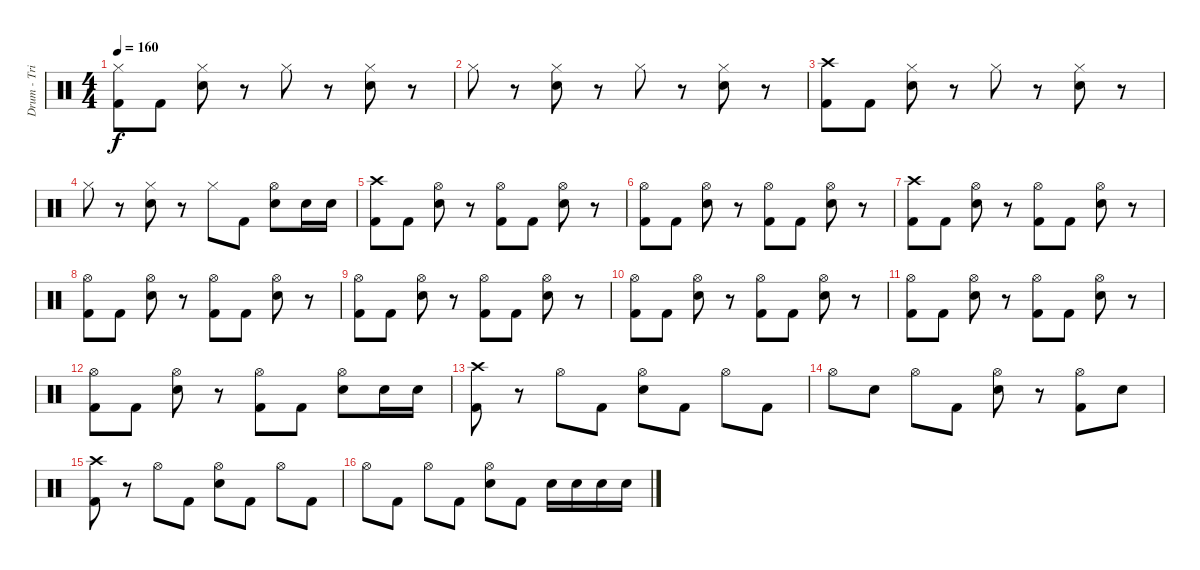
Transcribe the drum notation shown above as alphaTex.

\track ("Drum - Trian" "Drum - Tri") {instrument percussion}
\staff {score}
\articulation defaults
\ts (4 4)
\tempo 160
\clef neutral
\ks c
("Hi-Hat (closed)" "Kick (hit) 2").8{dy f} "Kick (hit) 2".8 ("Hi-Hat (closed)" "Electric Snare (hit)").8 r.8 "Hi-Hat (closed)".8 r.8 ("Hi-Hat (closed)" "Electric Snare (hit)").8 r.8 |
"Hi-Hat (closed)".8 r.8 ("Hi-Hat (closed)" "Electric Snare (hit)").8 r.8 "Hi-Hat (closed)".8 r.8 ("Hi-Hat (closed)" "Electric Snare (hit)").8 r.8 |
("Crash high (hit)" "Kick (hit) 2").8 "Kick (hit) 2".8 ("Hi-Hat (closed)" "Electric Snare (hit)").8 r.8 "Hi-Hat (closed)".8 r.8 ("Hi-Hat (closed)" "Electric Snare (hit)").8 r.8 |
"Hi-Hat (closed)".8 r.8 ("Hi-Hat (closed)" "Electric Snare (hit)").8 r.8 "Hi-Hat (closed)".8 "Kick (hit) 2".8 ("Hi-Hat (open)" "Electric Snare (hit)").8 "Electric Snare (hit)".16 "Electric Snare (hit)".16 |
("Crash high (hit)" "Kick (hit) 2").8 "Kick (hit) 2".8 ("Hi-Hat (open)" "Electric Snare (hit)").8 r.8 ("Hi-Hat (open)" "Kick (hit) 2").8 "Kick (hit) 2".8 ("Hi-Hat (open)" "Electric Snare (hit)").8 r.8 |
("Hi-Hat (open)" "Kick (hit) 2").8 "Kick (hit) 2".8 ("Hi-Hat (open)" "Electric Snare (hit)").8 r.8 ("Hi-Hat (open)" "Kick (hit) 2").8 "Kick (hit) 2".8 ("Hi-Hat (open)" "Electric Snare (hit)").8 r.8 |
("Crash high (hit)" "Kick (hit) 2").8 "Kick (hit) 2".8 ("Hi-Hat (open)" "Electric Snare (hit)").8 r.8 ("Hi-Hat (open)" "Kick (hit) 2").8 "Kick (hit) 2".8 ("Hi-Hat (open)" "Electric Snare (hit)").8 r.8 |
("Hi-Hat (open)" "Kick (hit) 2").8 "Kick (hit) 2".8 ("Hi-Hat (open)" "Electric Snare (hit)").8 r.8 ("Hi-Hat (open)" "Kick (hit) 2").8 "Kick (hit) 2".8 ("Hi-Hat (open)" "Electric Snare (hit)").8 r.8 |
("Hi-Hat (open)" "Kick (hit) 2").8 "Kick (hit) 2".8 ("Hi-Hat (open)" "Electric Snare (hit)").8 r.8 ("Hi-Hat (open)" "Kick (hit) 2").8 "Kick (hit) 2".8 ("Hi-Hat (open)" "Electric Snare (hit)").8 r.8 |
("Hi-Hat (open)" "Kick (hit) 2").8 "Kick (hit) 2".8 ("Hi-Hat (open)" "Electric Snare (hit)").8 r.8 ("Hi-Hat (open)" "Kick (hit) 2").8 "Kick (hit) 2".8 ("Hi-Hat (open)" "Electric Snare (hit)").8 r.8 |
("Hi-Hat (open)" "Kick (hit) 2").8 "Kick (hit) 2".8 ("Hi-Hat (open)" "Electric Snare (hit)").8 r.8 ("Hi-Hat (open)" "Kick (hit) 2").8 "Kick (hit) 2".8 ("Hi-Hat (open)" "Electric Snare (hit)").8 r.8 |
("Hi-Hat (open)" "Kick (hit) 2").8 "Kick (hit) 2".8 ("Hi-Hat (open)" "Electric Snare (hit)").8 r.8 ("Hi-Hat (open)" "Kick (hit) 2").8 "Kick (hit) 2".8 ("Hi-Hat (open)" "Electric Snare (hit)").8 "Electric Snare (hit)".16 "Electric Snare (hit)".16 |
("Crash high (hit)" "Kick (hit) 2").8 r.8 "Hi-Hat (open)".8 "Kick (hit) 2".8 ("Hi-Hat (open)" "Electric Snare (hit)").8 "Kick (hit) 2".8 "Hi-Hat (open)".8 "Kick (hit) 2".8 |
"Hi-Hat (open)".8 "Electric Snare (hit)".8 "Hi-Hat (open)".8 "Kick (hit) 2".8 ("Hi-Hat (open)" "Electric Snare (hit)").8 r.8 ("Hi-Hat (open)" "Kick (hit) 2").8 "Electric Snare (hit)".8 |
("Crash high (hit)" "Kick (hit) 2").8 r.8 "Hi-Hat (open)".8 "Kick (hit) 2".8 ("Hi-Hat (open)" "Electric Snare (hit)").8 "Kick (hit) 2".8 "Hi-Hat (open)".8 "Kick (hit) 2".8 |
"Hi-Hat (open)".8 "Kick (hit) 2".8 "Hi-Hat (open)".8 "Kick (hit) 2".8 ("Hi-Hat (open)" "Electric Snare (hit)").8 "Kick (hit) 2".8 "Electric Snare (hit)".16 "Electric Snare (hit)".16 "Electric Snare (hit)".16 "Electric Snare (hit)".16
